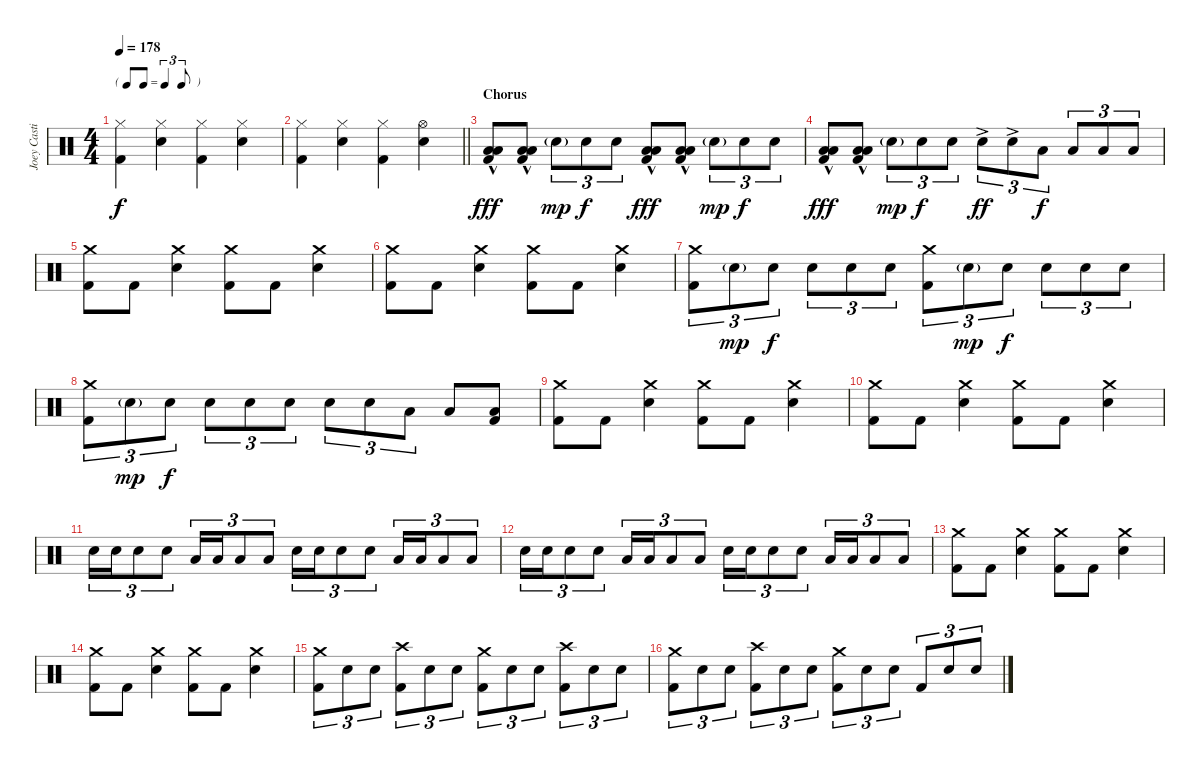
\track ("Joey Castillo" "Joey Casti") {instrument percussion}
\staff {score}
\articulation defaults
\ts (4 4)
\tf triplet8th
\tempo 178
\clef neutral
\ks c
("Hi-Hat (closed)" "Kick (hit) 2").4{dy f} ("Hi-Hat (closed)" "Snare (hit) 2").4 ("Hi-Hat (closed)" "Kick (hit) 2").4 ("Hi-Hat (closed)" "Snare (hit) 2").4 |
\barLineRight lightlight
("Hi-Hat (closed)" "Kick (hit) 2").4 ("Hi-Hat (closed)" "Snare (hit) 2").4 ("Hi-Hat (closed)" "Kick (hit) 2").4 ("Hi-Hat (open)" "Snare (hit) 2").4 |
\section ("" "Chorus")
("Low Tom (hit)" "Low Floor Tom (hit)" "Kick (hit) 2"{hac}).8{dy fff} ("Low Tom (hit)" "Low Floor Tom (hit)" "Kick (hit) 2"{hac}).8 "Snare (hit) 2"{g}.8{tu (3 2) dy mp} "Snare (hit) 2".8{tu (3 2) dy f} "Snare (hit) 2".8{tu (3 2)} ("Low Tom (hit)" "Low Floor Tom (hit)" "Kick (hit) 2"{hac}).8{dy fff} ("Low Tom (hit)" "Low Floor Tom (hit)" "Kick (hit) 2"{hac}).8 "Snare (hit) 2"{g}.8{tu (3 2) dy mp} "Snare (hit) 2".8{tu (3 2) dy f} "Snare (hit) 2".8{tu (3 2)} |
("Low Tom (hit)" "Low Floor Tom (hit)" "Kick (hit) 2"{hac}).8{dy fff} ("Low Tom (hit)" "Low Floor Tom (hit)" "Kick (hit) 2"{hac}).8 "Snare (hit) 2"{g}.8{tu (3 2) dy mp} "Snare (hit) 2".8{tu (3 2) dy f} "Snare (hit) 2".8{tu (3 2)} "Snare (hit) 2"{ac}.8{tu (3 2) dy ff} "Snare (hit) 2"{ac}.8{tu (3 2)} "Low Tom (hit)".8{tu (3 2) dy f} "Low Tom (hit)".8{tu (3 2)} "Low Tom (hit)".8{tu (3 2)} "Low Tom (hit)".8{tu (3 2)} |
("Crash medium (hit)" "Kick (hit) 2").8 "Kick (hit) 2".8 ("Crash medium (hit)" "Snare (hit) 2").4 ("Crash medium (hit)" "Kick (hit) 2").8 "Kick (hit) 2".8 ("Crash medium (hit)" "Snare (hit) 2").4 |
("Crash medium (hit)" "Kick (hit) 2").8 "Kick (hit) 2".8 ("Crash medium (hit)" "Snare (hit) 2").4 ("Crash medium (hit)" "Kick (hit) 2").8 "Kick (hit) 2".8 ("Crash medium (hit)" "Snare (hit) 2").4 |
("Crash medium (hit)" "Kick (hit) 2").8{tu (3 2)} "Snare (hit) 2"{g}.8{tu (3 2) dy mp} "Snare (hit) 2".8{tu (3 2) dy f} "Snare (hit) 2".8{tu (3 2)} "Snare (hit) 2".8{tu (3 2)} "Snare (hit) 2".8{tu (3 2)} ("Crash medium (hit)" "Kick (hit) 2").8{tu (3 2)} "Snare (hit) 2"{g}.8{tu (3 2) dy mp} "Snare (hit) 2".8{tu (3 2) dy f} "Snare (hit) 2".8{tu (3 2)} "Snare (hit) 2".8{tu (3 2)} "Snare (hit) 2".8{tu (3 2)} |
("Crash medium (hit)" "Kick (hit) 2").8{tu (3 2)} "Snare (hit) 2"{g}.8{tu (3 2) dy mp} "Snare (hit) 2".8{tu (3 2) dy f} "Snare (hit) 2".8{tu (3 2)} "Snare (hit) 2".8{tu (3 2)} "Snare (hit) 2".8{tu (3 2)} "Snare (hit) 2".8{tu (3 2)} "Snare (hit) 2".8{tu (3 2)} "Low Tom (hit)".8{tu (3 2)} "Low Tom (hit)".8 ("Low Floor Tom (hit)" "Kick (hit) 2").8 |
("Crash medium (hit)" "Kick (hit) 2").8 "Kick (hit) 2".8 ("Crash medium (hit)" "Snare (hit) 2").4 ("Crash medium (hit)" "Kick (hit) 2").8 "Kick (hit) 2".8 ("Crash medium (hit)" "Snare (hit) 2").4 |
("Crash medium (hit)" "Kick (hit) 2").8 "Kick (hit) 2".8 ("Crash medium (hit)" "Snare (hit) 2").4 ("Crash medium (hit)" "Kick (hit) 2").8 "Kick (hit) 2".8 ("Crash medium (hit)" "Snare (hit) 2").4 |
"Snare (hit) 2".16{tu (3 2)} "Snare (hit) 2".16{tu (3 2)} "Snare (hit) 2".8{tu (3 2)} "Snare (hit) 2".8{tu (3 2)} "Low Tom (hit)".16{tu (3 2)} "Low Tom (hit)".16{tu (3 2)} "Low Tom (hit)".8{tu (3 2)} "Low Tom (hit)".8{tu (3 2)} "Snare (hit) 2".16{tu (3 2)} "Snare (hit) 2".16{tu (3 2)} "Snare (hit) 2".8{tu (3 2)} "Snare (hit) 2".8{tu (3 2)} "Low Tom (hit)".16{tu (3 2)} "Low Tom (hit)".16{tu (3 2)} "Low Tom (hit)".8{tu (3 2)} "Low Tom (hit)".8{tu (3 2)} |
"Snare (hit) 2".16{tu (3 2)} "Snare (hit) 2".16{tu (3 2)} "Snare (hit) 2".8{tu (3 2)} "Snare (hit) 2".8{tu (3 2)} "Low Tom (hit)".16{tu (3 2)} "Low Tom (hit)".16{tu (3 2)} "Low Tom (hit)".8{tu (3 2)} "Low Tom (hit)".8{tu (3 2)} "Snare (hit) 2".16{tu (3 2)} "Snare (hit) 2".16{tu (3 2)} "Snare (hit) 2".8{tu (3 2)} "Snare (hit) 2".8{tu (3 2)} "Low Tom (hit)".16{tu (3 2)} "Low Tom (hit)".16{tu (3 2)} "Low Tom (hit)".8{tu (3 2)} "Low Tom (hit)".8{tu (3 2)} |
("Crash medium (hit)" "Kick (hit) 2").8 "Kick (hit) 2".8 ("Crash medium (hit)" "Snare (hit) 2").4 ("Crash medium (hit)" "Kick (hit) 2").8 "Kick (hit) 2".8 ("Crash medium (hit)" "Snare (hit) 2").4 |
("Crash medium (hit)" "Kick (hit) 2").8 "Kick (hit) 2".8 ("Crash medium (hit)" "Snare (hit) 2").4 ("Crash medium (hit)" "Kick (hit) 2").8 "Kick (hit) 2".8 ("Crash medium (hit)" "Snare (hit) 2").4 |
("Crash medium (hit)" "Kick (hit) 2").8{tu (3 2)} "Snare (hit) 2".8{tu (3 2)} "Snare (hit) 2".8{tu (3 2)} ("Crash high (hit)" "Kick (hit) 2").8{tu (3 2)} "Snare (hit) 2".8{tu (3 2)} "Snare (hit) 2".8{tu (3 2)} ("Crash medium (hit)" "Kick (hit) 2").8{tu (3 2)} "Snare (hit) 2".8{tu (3 2)} "Snare (hit) 2".8{tu (3 2)} ("Crash high (hit)" "Kick (hit) 2").8{tu (3 2)} "Snare (hit) 2".8{tu (3 2)} "Snare (hit) 2".8{tu (3 2)} |
("Crash medium (hit)" "Kick (hit) 2").8{tu (3 2)} "Snare (hit) 2".8{tu (3 2)} "Snare (hit) 2".8{tu (3 2)} ("Crash high (hit)" "Kick (hit) 2").8{tu (3 2)} "Snare (hit) 2".8{tu (3 2)} "Snare (hit) 2".8{tu (3 2)} ("Crash medium (hit)" "Kick (hit) 2").8{tu (3 2)} "Snare (hit) 2".8{tu (3 2)} "Snare (hit) 2".8{tu (3 2)} "Kick (hit) 2".8{tu (3 2)} "Snare (hit) 2".8{tu (3 2)} "Snare (hit) 2".8{tu (3 2)}
